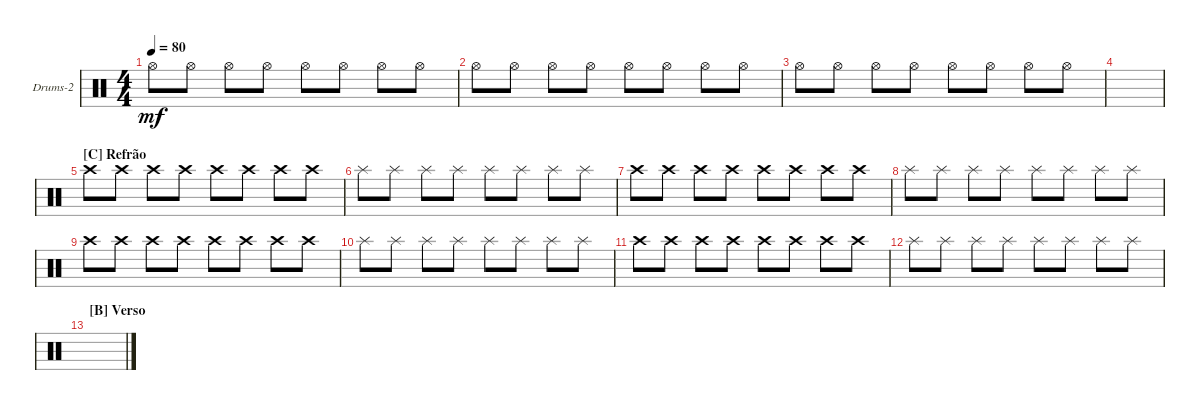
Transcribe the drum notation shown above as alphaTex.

\defaultSystemsLayout 4
\bracketExtendMode groupsimilarinstruments
\firstSystemTrackNameOrientation horizontal
\otherSystemsTrackNameOrientation horizontal
\track ("Percussão" "Drums-2") {multiBarRest instrument percussion}
\staff {score}
\articulation defaults
\ts (4 4)
\tempo 80
\clef neutral
\ks c "Hi-Hat (open)".8{dy mf} "Hi-Hat (open)".8 "Hi-Hat (open)".8 "Hi-Hat (open)".8 "Hi-Hat (open)".8 "Hi-Hat (open)".8 "Hi-Hat (open)".8 "Hi-Hat (open)".8
|
"Hi-Hat (open)".8 "Hi-Hat (open)".8 "Hi-Hat (open)".8 "Hi-Hat (open)".8 "Hi-Hat (open)".8 "Hi-Hat (open)".8 "Hi-Hat (open)".8 "Hi-Hat (open)".8 |
"Hi-Hat (open)".8 "Hi-Hat (open)".8 "Hi-Hat (open)".8 "Hi-Hat (open)".8 "Hi-Hat (open)".8 "Hi-Hat (open)".8 "Hi-Hat (open)".8 "Hi-Hat (open)".8 |
|
\section ("C" "Refrão")
"Crash high (hit)".8 "Crash high (hit)".8 "Crash high (hit)".8 "Crash high (hit)".8 "Crash high (hit)".8 "Crash high (hit)".8 "Crash high (hit)".8 "Crash high (hit)".8 |
"Splash (hit)".8 "Splash (hit)".8 "Splash (hit)".8 "Splash (hit)".8 "Splash (hit)".8 "Splash (hit)".8 "Splash (hit)".8 "Splash (hit)".8 |
"Crash high (hit)".8 "Crash high (hit)".8 "Crash high (hit)".8 "Crash high (hit)".8 "Crash high (hit)".8 "Crash high (hit)".8 "Crash high (hit)".8 "Crash high (hit)".8 |
"Splash (hit)".8 "Splash (hit)".8 "Splash (hit)".8 "Splash (hit)".8 "Splash (hit)".8 "Splash (hit)".8 "Splash (hit)".8 "Splash (hit)".8 |
"Crash high (hit)".8 "Crash high (hit)".8 "Crash high (hit)".8 "Crash high (hit)".8 "Crash high (hit)".8 "Crash high (hit)".8 "Crash high (hit)".8 "Crash high (hit)".8 |
"Splash (hit)".8 "Splash (hit)".8 "Splash (hit)".8 "Splash (hit)".8 "Splash (hit)".8 "Splash (hit)".8 "Splash (hit)".8 "Splash (hit)".8 |
"Crash high (hit)".8 "Crash high (hit)".8 "Crash high (hit)".8 "Crash high (hit)".8 "Crash high (hit)".8 "Crash high (hit)".8 "Crash high (hit)".8 "Crash high (hit)".8 |
"Splash (hit)".8 "Splash (hit)".8 "Splash (hit)".8 "Splash (hit)".8 "Splash (hit)".8 "Splash (hit)".8 "Splash (hit)".8 "Splash (hit)".8 |
\section ("B" "Verso")
